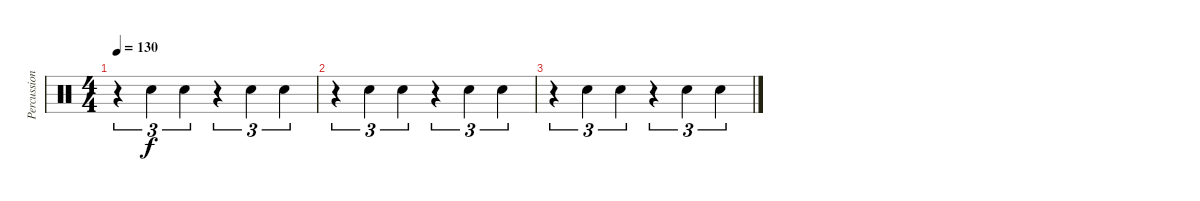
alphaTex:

\track ("Percussion" "Percussion") {instrument percussion}
\staff {score}
\articulation defaults
\ts (4 4)
\tempo 130
\clef neutral
\ks c
r.4{tu (3 2) dy f} "Hand Clap (hit)".4{tu (3 2)} "Hand Clap (hit)".4{tu (3 2)} r.4{tu (3 2)} "Hand Clap (hit)".4{tu (3 2)} "Hand Clap (hit)".4{tu (3 2)} |
r.4{tu (3 2)} "Hand Clap (hit)".4{tu (3 2)} "Hand Clap (hit)".4{tu (3 2)} r.4{tu (3 2)} "Hand Clap (hit)".4{tu (3 2)} "Hand Clap (hit)".4{tu (3 2)} |
r.4{tu (3 2)} "Hand Clap (hit)".4{tu (3 2)} "Hand Clap (hit)".4{tu (3 2)} r.4{tu (3 2)} "Hand Clap (hit)".4{tu (3 2)} "Hand Clap (hit)".4{tu (3 2)}
